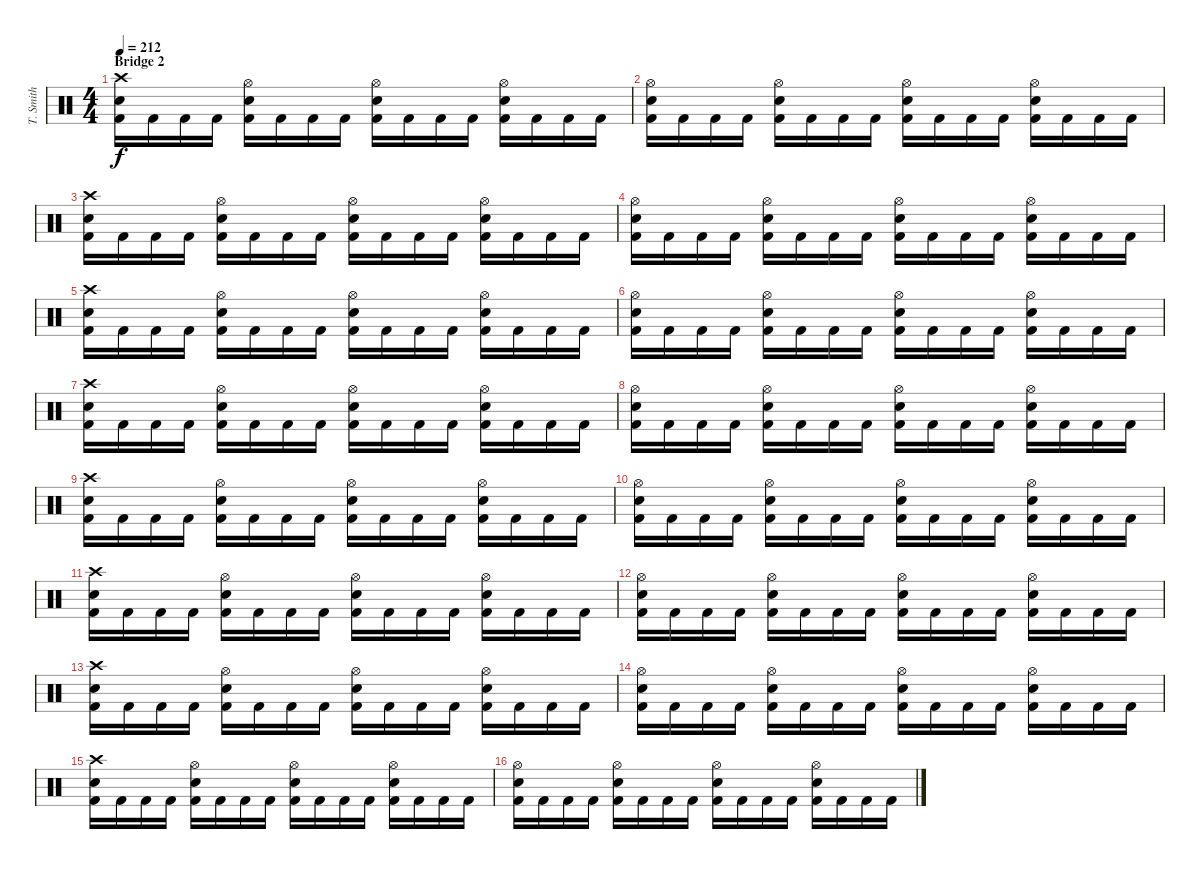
\track ("T. Smith" "T. Smith") {instrument percussion}
\staff {score}
\articulation defaults
\ts (4 4)
\section ("" "Bridge 2")
\tempo 212
\clef neutral
\ks c
("Crash high (hit)" "Electric Snare (hit)" "Kick (hit) 2").16{dy f} "Kick (hit) 2".16 "Kick (hit) 2".16 "Kick (hit) 2".16 ("Hi-Hat (open)" "Electric Snare (hit)" "Kick (hit) 2").16 "Kick (hit) 2".16 "Kick (hit) 2".16 "Kick (hit) 2".16 ("Hi-Hat (open)" "Electric Snare (hit)" "Kick (hit) 2").16 "Kick (hit) 2".16 "Kick (hit) 2".16 "Kick (hit) 2".16 ("Hi-Hat (open)" "Electric Snare (hit)" "Kick (hit) 2").16 "Kick (hit) 2".16 "Kick (hit) 2".16 "Kick (hit) 2".16 |
("Hi-Hat (open)" "Electric Snare (hit)" "Kick (hit) 2").16 "Kick (hit) 2".16 "Kick (hit) 2".16 "Kick (hit) 2".16 ("Hi-Hat (open)" "Electric Snare (hit)" "Kick (hit) 2").16 "Kick (hit) 2".16 "Kick (hit) 2".16 "Kick (hit) 2".16 ("Hi-Hat (open)" "Electric Snare (hit)" "Kick (hit) 2").16 "Kick (hit) 2".16 "Kick (hit) 2".16 "Kick (hit) 2".16 ("Hi-Hat (open)" "Electric Snare (hit)" "Kick (hit) 2").16 "Kick (hit) 2".16 "Kick (hit) 2".16 "Kick (hit) 2".16 |
("Crash high (hit)" "Electric Snare (hit)" "Kick (hit) 2").16 "Kick (hit) 2".16 "Kick (hit) 2".16 "Kick (hit) 2".16 ("Hi-Hat (open)" "Electric Snare (hit)" "Kick (hit) 2").16 "Kick (hit) 2".16 "Kick (hit) 2".16 "Kick (hit) 2".16 ("Hi-Hat (open)" "Electric Snare (hit)" "Kick (hit) 2").16 "Kick (hit) 2".16 "Kick (hit) 2".16 "Kick (hit) 2".16 ("Hi-Hat (open)" "Electric Snare (hit)" "Kick (hit) 2").16 "Kick (hit) 2".16 "Kick (hit) 2".16 "Kick (hit) 2".16 |
("Hi-Hat (open)" "Electric Snare (hit)" "Kick (hit) 2").16 "Kick (hit) 2".16 "Kick (hit) 2".16 "Kick (hit) 2".16 ("Hi-Hat (open)" "Electric Snare (hit)" "Kick (hit) 2").16 "Kick (hit) 2".16 "Kick (hit) 2".16 "Kick (hit) 2".16 ("Hi-Hat (open)" "Electric Snare (hit)" "Kick (hit) 2").16 "Kick (hit) 2".16 "Kick (hit) 2".16 "Kick (hit) 2".16 ("Hi-Hat (open)" "Electric Snare (hit)" "Kick (hit) 2").16 "Kick (hit) 2".16 "Kick (hit) 2".16 "Kick (hit) 2".16 |
("Crash high (hit)" "Electric Snare (hit)" "Kick (hit) 2").16 "Kick (hit) 2".16 "Kick (hit) 2".16 "Kick (hit) 2".16 ("Hi-Hat (open)" "Electric Snare (hit)" "Kick (hit) 2").16 "Kick (hit) 2".16 "Kick (hit) 2".16 "Kick (hit) 2".16 ("Hi-Hat (open)" "Electric Snare (hit)" "Kick (hit) 2").16 "Kick (hit) 2".16 "Kick (hit) 2".16 "Kick (hit) 2".16 ("Hi-Hat (open)" "Electric Snare (hit)" "Kick (hit) 2").16 "Kick (hit) 2".16 "Kick (hit) 2".16 "Kick (hit) 2".16 |
("Hi-Hat (open)" "Electric Snare (hit)" "Kick (hit) 2").16 "Kick (hit) 2".16 "Kick (hit) 2".16 "Kick (hit) 2".16 ("Hi-Hat (open)" "Electric Snare (hit)" "Kick (hit) 2").16 "Kick (hit) 2".16 "Kick (hit) 2".16 "Kick (hit) 2".16 ("Hi-Hat (open)" "Electric Snare (hit)" "Kick (hit) 2").16 "Kick (hit) 2".16 "Kick (hit) 2".16 "Kick (hit) 2".16 ("Hi-Hat (open)" "Electric Snare (hit)" "Kick (hit) 2").16 "Kick (hit) 2".16 "Kick (hit) 2".16 "Kick (hit) 2".16 |
("Crash high (hit)" "Electric Snare (hit)" "Kick (hit) 2").16 "Kick (hit) 2".16 "Kick (hit) 2".16 "Kick (hit) 2".16 ("Hi-Hat (open)" "Electric Snare (hit)" "Kick (hit) 2").16 "Kick (hit) 2".16 "Kick (hit) 2".16 "Kick (hit) 2".16 ("Hi-Hat (open)" "Electric Snare (hit)" "Kick (hit) 2").16 "Kick (hit) 2".16 "Kick (hit) 2".16 "Kick (hit) 2".16 ("Hi-Hat (open)" "Electric Snare (hit)" "Kick (hit) 2").16 "Kick (hit) 2".16 "Kick (hit) 2".16 "Kick (hit) 2".16 |
("Hi-Hat (open)" "Electric Snare (hit)" "Kick (hit) 2").16 "Kick (hit) 2".16 "Kick (hit) 2".16 "Kick (hit) 2".16 ("Hi-Hat (open)" "Electric Snare (hit)" "Kick (hit) 2").16 "Kick (hit) 2".16 "Kick (hit) 2".16 "Kick (hit) 2".16 ("Hi-Hat (open)" "Electric Snare (hit)" "Kick (hit) 2").16 "Kick (hit) 2".16 "Kick (hit) 2".16 "Kick (hit) 2".16 ("Hi-Hat (open)" "Electric Snare (hit)" "Kick (hit) 2").16 "Kick (hit) 2".16 "Kick (hit) 2".16 "Kick (hit) 2".16 |
("Crash high (hit)" "Electric Snare (hit)" "Kick (hit) 2").16 "Kick (hit) 2".16 "Kick (hit) 2".16 "Kick (hit) 2".16 ("Hi-Hat (open)" "Electric Snare (hit)" "Kick (hit) 2").16 "Kick (hit) 2".16 "Kick (hit) 2".16 "Kick (hit) 2".16 ("Hi-Hat (open)" "Electric Snare (hit)" "Kick (hit) 2").16 "Kick (hit) 2".16 "Kick (hit) 2".16 "Kick (hit) 2".16 ("Hi-Hat (open)" "Electric Snare (hit)" "Kick (hit) 2").16 "Kick (hit) 2".16 "Kick (hit) 2".16 "Kick (hit) 2".16 |
("Hi-Hat (open)" "Electric Snare (hit)" "Kick (hit) 2").16 "Kick (hit) 2".16 "Kick (hit) 2".16 "Kick (hit) 2".16 ("Hi-Hat (open)" "Electric Snare (hit)" "Kick (hit) 2").16 "Kick (hit) 2".16 "Kick (hit) 2".16 "Kick (hit) 2".16 ("Hi-Hat (open)" "Electric Snare (hit)" "Kick (hit) 2").16 "Kick (hit) 2".16 "Kick (hit) 2".16 "Kick (hit) 2".16 ("Hi-Hat (open)" "Electric Snare (hit)" "Kick (hit) 2").16 "Kick (hit) 2".16 "Kick (hit) 2".16 "Kick (hit) 2".16 |
("Crash high (hit)" "Electric Snare (hit)" "Kick (hit) 2").16 "Kick (hit) 2".16 "Kick (hit) 2".16 "Kick (hit) 2".16 ("Hi-Hat (open)" "Electric Snare (hit)" "Kick (hit) 2").16 "Kick (hit) 2".16 "Kick (hit) 2".16 "Kick (hit) 2".16 ("Hi-Hat (open)" "Electric Snare (hit)" "Kick (hit) 2").16 "Kick (hit) 2".16 "Kick (hit) 2".16 "Kick (hit) 2".16 ("Hi-Hat (open)" "Electric Snare (hit)" "Kick (hit) 2").16 "Kick (hit) 2".16 "Kick (hit) 2".16 "Kick (hit) 2".16 |
("Hi-Hat (open)" "Electric Snare (hit)" "Kick (hit) 2").16 "Kick (hit) 2".16 "Kick (hit) 2".16 "Kick (hit) 2".16 ("Hi-Hat (open)" "Electric Snare (hit)" "Kick (hit) 2").16 "Kick (hit) 2".16 "Kick (hit) 2".16 "Kick (hit) 2".16 ("Hi-Hat (open)" "Electric Snare (hit)" "Kick (hit) 2").16 "Kick (hit) 2".16 "Kick (hit) 2".16 "Kick (hit) 2".16 ("Hi-Hat (open)" "Electric Snare (hit)" "Kick (hit) 2").16 "Kick (hit) 2".16 "Kick (hit) 2".16 "Kick (hit) 2".16 |
("Crash high (hit)" "Electric Snare (hit)" "Kick (hit) 2").16 "Kick (hit) 2".16 "Kick (hit) 2".16 "Kick (hit) 2".16 ("Hi-Hat (open)" "Electric Snare (hit)" "Kick (hit) 2").16 "Kick (hit) 2".16 "Kick (hit) 2".16 "Kick (hit) 2".16 ("Hi-Hat (open)" "Electric Snare (hit)" "Kick (hit) 2").16 "Kick (hit) 2".16 "Kick (hit) 2".16 "Kick (hit) 2".16 ("Hi-Hat (open)" "Electric Snare (hit)" "Kick (hit) 2").16 "Kick (hit) 2".16 "Kick (hit) 2".16 "Kick (hit) 2".16 |
("Hi-Hat (open)" "Electric Snare (hit)" "Kick (hit) 2").16 "Kick (hit) 2".16 "Kick (hit) 2".16 "Kick (hit) 2".16 ("Hi-Hat (open)" "Electric Snare (hit)" "Kick (hit) 2").16 "Kick (hit) 2".16 "Kick (hit) 2".16 "Kick (hit) 2".16 ("Hi-Hat (open)" "Electric Snare (hit)" "Kick (hit) 2").16 "Kick (hit) 2".16 "Kick (hit) 2".16 "Kick (hit) 2".16 ("Hi-Hat (open)" "Electric Snare (hit)" "Kick (hit) 2").16 "Kick (hit) 2".16 "Kick (hit) 2".16 "Kick (hit) 2".16 |
("Crash high (hit)" "Electric Snare (hit)" "Kick (hit) 2").16 "Kick (hit) 2".16 "Kick (hit) 2".16 "Kick (hit) 2".16 ("Hi-Hat (open)" "Electric Snare (hit)" "Kick (hit) 2").16 "Kick (hit) 2".16 "Kick (hit) 2".16 "Kick (hit) 2".16 ("Hi-Hat (open)" "Electric Snare (hit)" "Kick (hit) 2").16 "Kick (hit) 2".16 "Kick (hit) 2".16 "Kick (hit) 2".16 ("Hi-Hat (open)" "Electric Snare (hit)" "Kick (hit) 2").16 "Kick (hit) 2".16 "Kick (hit) 2".16 "Kick (hit) 2".16 |
("Hi-Hat (open)" "Electric Snare (hit)" "Kick (hit) 2").16 "Kick (hit) 2".16 "Kick (hit) 2".16 "Kick (hit) 2".16 ("Hi-Hat (open)" "Electric Snare (hit)" "Kick (hit) 2").16 "Kick (hit) 2".16 "Kick (hit) 2".16 "Kick (hit) 2".16 ("Hi-Hat (open)" "Electric Snare (hit)" "Kick (hit) 2").16 "Kick (hit) 2".16 "Kick (hit) 2".16 "Kick (hit) 2".16 ("Hi-Hat (open)" "Electric Snare (hit)" "Kick (hit) 2").16 "Kick (hit) 2".16 "Kick (hit) 2".16 "Kick (hit) 2".16
